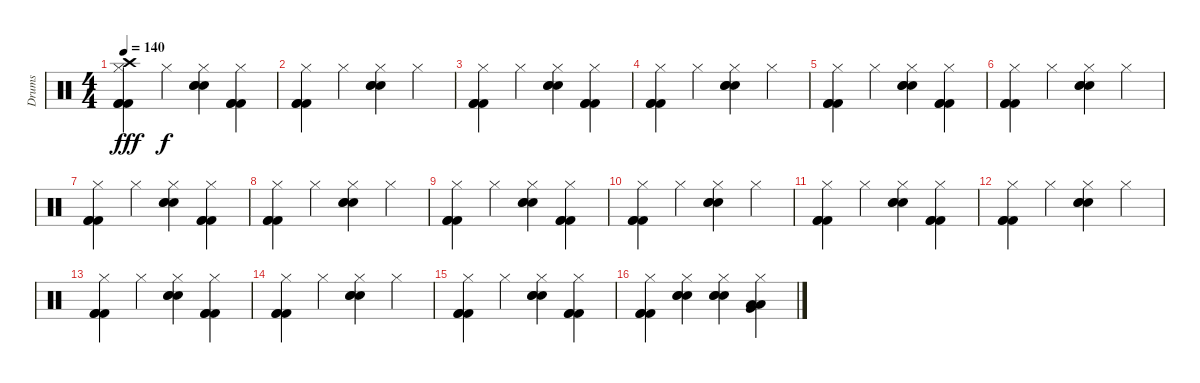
\track ("Drums" "Drums") {instrument percussion}
\staff {score}
\articulation defaults
\ts (4 4)
\tempo 140
\clef neutral
\ks c
("Hi-Hat (closed)" "Kick (hit) 2" "Kick (hit) 2" "Kick (hit) 2" "Crash high (hit)").4{dy fff} "Hi-Hat (closed)".4{dy f} ("Hi-Hat (closed)" "Snare (hit) 2" "Snare (hit) 2" "Snare (hit) 2").4 ("Hi-Hat (closed)" "Kick (hit) 2" "Kick (hit) 2" "Kick (hit) 2").4 |
("Hi-Hat (closed)" "Kick (hit) 2" "Kick (hit) 2" "Kick (hit) 2").4 "Hi-Hat (closed)".4 ("Hi-Hat (closed)" "Snare (hit) 2" "Snare (hit) 2" "Snare (hit) 2").4 "Hi-Hat (closed)".4 |
("Hi-Hat (closed)" "Kick (hit) 2" "Kick (hit) 2" "Kick (hit) 2").4 "Hi-Hat (closed)".4 ("Hi-Hat (closed)" "Snare (hit) 2" "Snare (hit) 2" "Snare (hit) 2").4 ("Hi-Hat (closed)" "Kick (hit) 2" "Kick (hit) 2" "Kick (hit) 2").4 |
("Hi-Hat (closed)" "Kick (hit) 2" "Kick (hit) 2" "Kick (hit) 2").4 "Hi-Hat (closed)".4 ("Hi-Hat (closed)" "Snare (hit) 2" "Snare (hit) 2" "Snare (hit) 2").4 "Hi-Hat (closed)".4 |
("Hi-Hat (closed)" "Kick (hit) 2" "Kick (hit) 2" "Kick (hit) 2").4 "Hi-Hat (closed)".4 ("Hi-Hat (closed)" "Snare (hit) 2" "Snare (hit) 2" "Snare (hit) 2").4 ("Hi-Hat (closed)" "Kick (hit) 2" "Kick (hit) 2" "Kick (hit) 2").4 |
("Hi-Hat (closed)" "Kick (hit) 2" "Kick (hit) 2" "Kick (hit) 2").4 "Hi-Hat (closed)".4 ("Hi-Hat (closed)" "Snare (hit) 2" "Snare (hit) 2" "Snare (hit) 2").4 "Hi-Hat (closed)".4 |
("Hi-Hat (closed)" "Kick (hit) 2" "Kick (hit) 2" "Kick (hit) 2").4 "Hi-Hat (closed)".4 ("Hi-Hat (closed)" "Snare (hit) 2" "Snare (hit) 2" "Snare (hit) 2").4 ("Hi-Hat (closed)" "Kick (hit) 2" "Kick (hit) 2" "Kick (hit) 2").4 |
("Hi-Hat (closed)" "Kick (hit) 2" "Kick (hit) 2" "Kick (hit) 2").4 "Hi-Hat (closed)".4 ("Hi-Hat (closed)" "Snare (hit) 2" "Snare (hit) 2" "Snare (hit) 2").4 "Hi-Hat (closed)".4 |
("Hi-Hat (closed)" "Kick (hit) 2" "Kick (hit) 2" "Kick (hit) 2").4 "Hi-Hat (closed)".4 ("Hi-Hat (closed)" "Snare (hit) 2" "Snare (hit) 2" "Snare (hit) 2").4 ("Hi-Hat (closed)" "Kick (hit) 2" "Kick (hit) 2" "Kick (hit) 2").4 |
("Hi-Hat (closed)" "Kick (hit) 2" "Kick (hit) 2" "Kick (hit) 2").4 "Hi-Hat (closed)".4 ("Hi-Hat (closed)" "Snare (hit) 2" "Snare (hit) 2" "Snare (hit) 2").4 "Hi-Hat (closed)".4 |
("Hi-Hat (closed)" "Kick (hit) 2" "Kick (hit) 2" "Kick (hit) 2").4 "Hi-Hat (closed)".4 ("Hi-Hat (closed)" "Snare (hit) 2" "Snare (hit) 2" "Snare (hit) 2").4 ("Hi-Hat (closed)" "Kick (hit) 2" "Kick (hit) 2" "Kick (hit) 2").4 |
("Hi-Hat (closed)" "Kick (hit) 2" "Kick (hit) 2" "Kick (hit) 2").4 "Hi-Hat (closed)".4 ("Hi-Hat (closed)" "Snare (hit) 2" "Snare (hit) 2" "Snare (hit) 2").4 "Hi-Hat (closed)".4 |
("Hi-Hat (closed)" "Kick (hit) 2" "Kick (hit) 2" "Kick (hit) 2").4 "Hi-Hat (closed)".4 ("Hi-Hat (closed)" "Snare (hit) 2" "Snare (hit) 2" "Snare (hit) 2").4 ("Hi-Hat (closed)" "Kick (hit) 2" "Kick (hit) 2" "Kick (hit) 2").4 |
("Hi-Hat (closed)" "Kick (hit) 2" "Kick (hit) 2" "Kick (hit) 2").4 "Hi-Hat (closed)".4 ("Hi-Hat (closed)" "Snare (hit) 2" "Snare (hit) 2" "Snare (hit) 2").4 "Hi-Hat (closed)".4 |
("Hi-Hat (closed)" "Kick (hit) 2" "Kick (hit) 2" "Kick (hit) 2").4 "Hi-Hat (closed)".4 ("Hi-Hat (closed)" "Snare (hit) 2" "Snare (hit) 2" "Snare (hit) 2").4 ("Hi-Hat (closed)" "Kick (hit) 2" "Kick (hit) 2" "Kick (hit) 2").4 |
("Hi-Hat (closed)" "Kick (hit) 2" "Kick (hit) 2" "Kick (hit) 2").4 ("Hi-Hat (closed)" "Snare (hit) 2" "Snare (hit) 2" "Snare (hit) 2").4 ("Hi-Hat (closed)" "Snare (hit) 2" "Snare (hit) 2" "Snare (hit) 2").4 ("Hi-Hat (closed)" "Low Tom (hit)" "Very Low Tom (hit)" "Low Floor Tom (hit)").4
